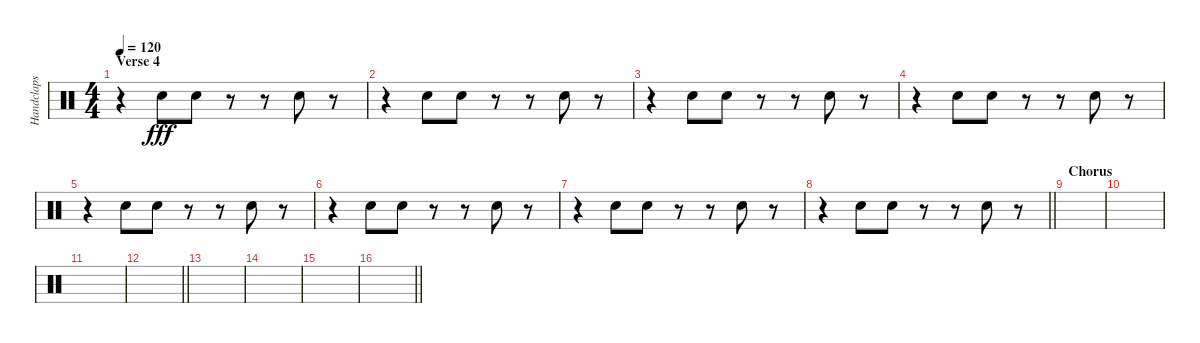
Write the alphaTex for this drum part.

\track ("Handclaps" "Handclaps") {instrument percussion}
\staff {score}
\articulation defaults
\ts (4 4)
\section ("" "Verse 4")
\tempo 120
\clef neutral
\ks c
r.4{dy fff} "Hand Clap (hit)".8 "Hand Clap (hit)".8 r.8 r.8 "Hand Clap (hit)".8 r.8 |
r.4 "Hand Clap (hit)".8 "Hand Clap (hit)".8 r.8 r.8 "Hand Clap (hit)".8 r.8 |
r.4 "Hand Clap (hit)".8 "Hand Clap (hit)".8 r.8 r.8 "Hand Clap (hit)".8 r.8 |
r.4 "Hand Clap (hit)".8 "Hand Clap (hit)".8 r.8 r.8 "Hand Clap (hit)".8 r.8 |
r.4 "Hand Clap (hit)".8 "Hand Clap (hit)".8 r.8 r.8 "Hand Clap (hit)".8 r.8 |
r.4 "Hand Clap (hit)".8 "Hand Clap (hit)".8 r.8 r.8 "Hand Clap (hit)".8 r.8 |
r.4 "Hand Clap (hit)".8 "Hand Clap (hit)".8 r.8 r.8 "Hand Clap (hit)".8 r.8 |
\barLineRight lightlight
r.4 "Hand Clap (hit)".8 "Hand Clap (hit)".8 r.8 r.8 "Hand Clap (hit)".8 r.8 |
\section ("" "Chorus")
|
|
|
\barLineRight lightlight
|
|
|
|
\barLineRight lightlight
